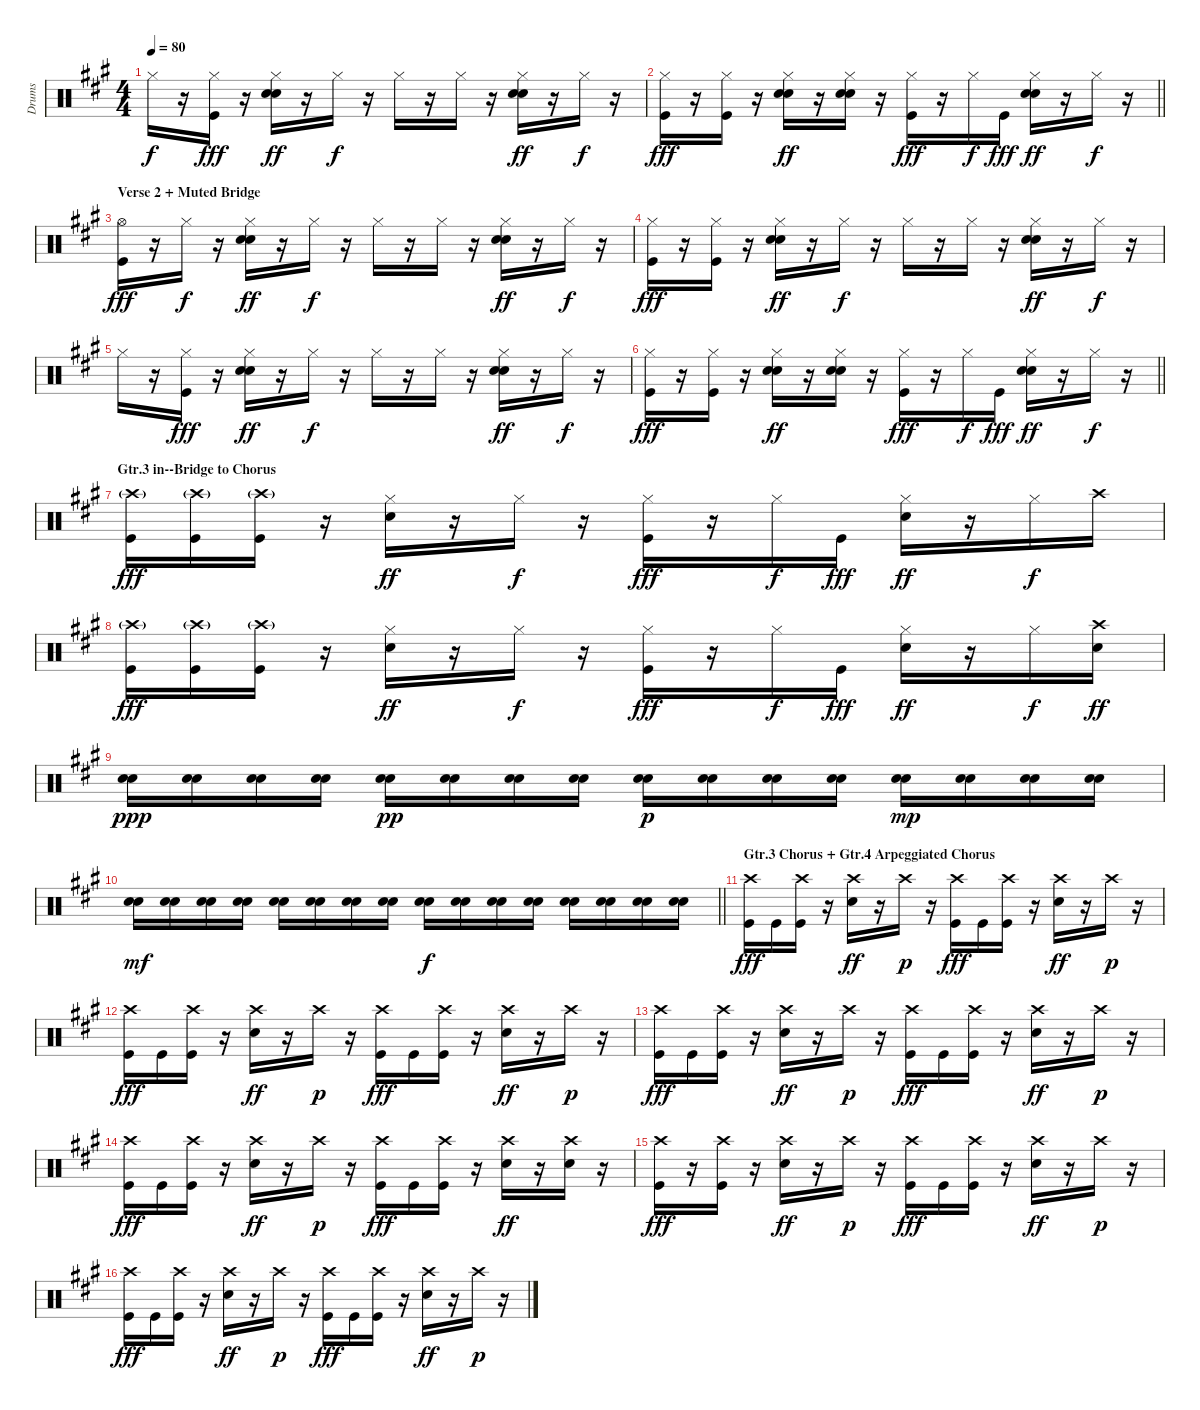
\track ("Drums" "Drums") {instrument percussion}
\staff {score}
\articulation defaults
\ts (4 4)
\tempo 80
\clef neutral
\ks f#minor "Hi-Hat (closed)".16{dy f}
r.16 ("Hi-Hat (closed)" "Kick (hit)").16{dy fff} r.16 ("Hi-Hat (closed)" "Electric Snare (hit)" "Snare (hit) 2").16{dy ff} r.16 "Hi-Hat (closed)".16{dy f} r.16 "Hi-Hat (closed)".16 r.16 "Hi-Hat (closed)".16 r.16 ("Hi-Hat (closed)" "Electric Snare (hit)" "Snare (hit) 2").16{dy ff} r.16 "Hi-Hat (closed)".16{dy f} r.16 |
\barLineRight lightlight
("Hi-Hat (closed)" "Kick (hit)").16{dy fff} r.16 ("Hi-Hat (closed)" "Kick (hit)").16 r.16 ("Hi-Hat (closed)" "Electric Snare (hit)" "Snare (hit) 2").16{dy ff} r.16 ("Hi-Hat (closed)" "Electric Snare (hit)" "Snare (hit) 2").16 r.16 ("Hi-Hat (closed)" "Kick (hit)").16{dy fff} r.16 "Hi-Hat (closed)".16{dy f} "Kick (hit)".16{dy fff} ("Hi-Hat (closed)" "Electric Snare (hit)" "Snare (hit) 2").16{dy ff} r.16 "Hi-Hat (closed)".16{dy f} r.16 |
\section ("" "Verse 2 + Muted Bridge")
\ks a
("Hi-Hat (open)" "Kick (hit)").16{dy fff} r.16 "Hi-Hat (closed)".16{dy f} r.16 ("Hi-Hat (closed)" "Electric Snare (hit)" "Snare (hit) 2").16{dy ff} r.16 "Hi-Hat (closed)".16{dy f} r.16 "Hi-Hat (closed)".16 r.16 "Hi-Hat (closed)".16 r.16 ("Hi-Hat (closed)" "Electric Snare (hit)" "Snare (hit) 2").16{dy ff} r.16 "Hi-Hat (closed)".16{dy f} r.16 |
\ks f#minor
("Hi-Hat (closed)" "Kick (hit)").16{dy fff} r.16 ("Hi-Hat (closed)" "Kick (hit)").16 r.16 ("Hi-Hat (closed)" "Electric Snare (hit)" "Snare (hit) 2").16{dy ff} r.16 "Hi-Hat (closed)".16{dy f} r.16 "Hi-Hat (closed)".16 r.16 "Hi-Hat (closed)".16 r.16 ("Hi-Hat (closed)" "Electric Snare (hit)" "Snare (hit) 2").16{dy ff} r.16 "Hi-Hat (closed)".16{dy f} r.16 |
"Hi-Hat (closed)".16 r.16 ("Hi-Hat (closed)" "Kick (hit)").16{dy fff} r.16 ("Hi-Hat (closed)" "Electric Snare (hit)" "Snare (hit) 2").16{dy ff} r.16 "Hi-Hat (closed)".16{dy f} r.16 "Hi-Hat (closed)".16 r.16 "Hi-Hat (closed)".16 r.16 ("Hi-Hat (closed)" "Electric Snare (hit)" "Snare (hit) 2").16{dy ff} r.16 "Hi-Hat (closed)".16{dy f} r.16 |
\barLineRight lightlight
("Hi-Hat (closed)" "Kick (hit)").16{dy fff} r.16 ("Hi-Hat (closed)" "Kick (hit)").16 r.16 ("Hi-Hat (closed)" "Electric Snare (hit)" "Snare (hit) 2").16{dy ff} r.16 ("Hi-Hat (closed)" "Electric Snare (hit)" "Snare (hit) 2").16 r.16 ("Hi-Hat (closed)" "Kick (hit)").16{dy fff} r.16 "Hi-Hat (closed)".16{dy f} "Kick (hit)".16{dy fff} ("Hi-Hat (closed)" "Electric Snare (hit)" "Snare (hit) 2").16{dy ff} r.16 "Hi-Hat (closed)".16{dy f} r.16 |
\section ("" "Gtr.3 in--Bridge to Chorus")
("Crash high (hit)"{g} "Kick (hit)").16{dy fff} ("Crash high (hit)"{g} "Kick (hit)").16 ("Crash high (hit)"{g} "Kick (hit)").16 r.16 ("Hi-Hat (closed)" "Electric Snare (hit)").16{dy ff} r.16 "Hi-Hat (closed)".16{dy f} r.16 ("Hi-Hat (closed)" "Kick (hit)").16{dy fff} r.16 "Hi-Hat (closed)".16{dy f} "Kick (hit)".16{dy fff} ("Hi-Hat (closed)" "Electric Snare (hit)").16{dy ff} r.16 "Hi-Hat (closed)".16{dy f} "Crash high (hit)".16 |
("Crash high (hit)"{g} "Kick (hit)").16{dy fff} ("Crash high (hit)"{g} "Kick (hit)").16 ("Crash high (hit)"{g} "Kick (hit)").16 r.16 ("Hi-Hat (closed)" "Electric Snare (hit)").16{dy ff} r.16 "Hi-Hat (closed)".16{dy f} r.16 ("Hi-Hat (closed)" "Kick (hit)").16{dy fff} r.16 "Hi-Hat (closed)".16{dy f} "Kick (hit)".16{dy fff} ("Hi-Hat (closed)" "Electric Snare (hit)").16{dy ff} r.16 "Hi-Hat (closed)".16{dy f} ("Crash high (hit)" "Electric Snare (hit)").16{dy ff} |
("Electric Snare (hit)" "Snare (hit) 2").16{dy ppp} ("Electric Snare (hit)" "Snare (hit) 2").16 ("Electric Snare (hit)" "Snare (hit) 2").16 ("Electric Snare (hit)" "Snare (hit) 2").16 ("Electric Snare (hit)" "Snare (hit) 2").16{dy pp} ("Electric Snare (hit)" "Snare (hit) 2").16 ("Electric Snare (hit)" "Snare (hit) 2").16 ("Electric Snare (hit)" "Snare (hit) 2").16 ("Electric Snare (hit)" "Snare (hit) 2").16{dy p} ("Electric Snare (hit)" "Snare (hit) 2").16 ("Electric Snare (hit)" "Snare (hit) 2").16 ("Electric Snare (hit)" "Snare (hit) 2").16 ("Electric Snare (hit)" "Snare (hit) 2").16{dy mp} ("Electric Snare (hit)" "Snare (hit) 2").16 ("Electric Snare (hit)" "Snare (hit) 2").16 ("Electric Snare (hit)" "Snare (hit) 2").16 |
\barLineRight lightlight
("Electric Snare (hit)" "Snare (hit) 2").16{dy mf} ("Electric Snare (hit)" "Snare (hit) 2").16 ("Electric Snare (hit)" "Snare (hit) 2").16 ("Electric Snare (hit)" "Snare (hit) 2").16 ("Electric Snare (hit)" "Snare (hit) 2").16 ("Electric Snare (hit)" "Snare (hit) 2").16 ("Electric Snare (hit)" "Snare (hit) 2").16 ("Electric Snare (hit)" "Snare (hit) 2").16 ("Electric Snare (hit)" "Snare (hit) 2").16{dy f} ("Electric Snare (hit)" "Snare (hit) 2").16 ("Electric Snare (hit)" "Snare (hit) 2").16 ("Electric Snare (hit)" "Snare (hit) 2").16 ("Electric Snare (hit)" "Snare (hit) 2").16 ("Electric Snare (hit)" "Snare (hit) 2").16 ("Electric Snare (hit)" "Snare (hit) 2").16 ("Electric Snare (hit)" "Snare (hit) 2").16 |
\section ("" "Gtr.3 Chorus + Gtr.4 Arpeggiated Chorus")
("Crash high (hit)" "Kick (hit)").16{dy fff} "Kick (hit)".16 ("Crash high (hit)" "Kick (hit)").16 r.16 ("Crash high (hit)" "Snare (hit) 2").16{dy ff} r.16 "Crash high (hit)".16{dy p} r.16 ("Crash high (hit)" "Kick (hit)").16{dy fff} "Kick (hit)".16 ("Crash high (hit)" "Kick (hit)").16 r.16 ("Crash high (hit)" "Snare (hit) 2").16{dy ff} r.16 "Crash high (hit)".16{dy p} r.16 |
("Crash high (hit)" "Kick (hit)").16{dy fff} "Kick (hit)".16 ("Crash high (hit)" "Kick (hit)").16 r.16 ("Crash high (hit)" "Snare (hit) 2").16{dy ff} r.16 "Crash high (hit)".16{dy p} r.16 ("Crash high (hit)" "Kick (hit)").16{dy fff} "Kick (hit)".16 ("Crash high (hit)" "Kick (hit)").16 r.16 ("Crash high (hit)" "Snare (hit) 2").16{dy ff} r.16 "Crash high (hit)".16{dy p} r.16 |
("Crash high (hit)" "Kick (hit)").16{dy fff} "Kick (hit)".16 ("Crash high (hit)" "Kick (hit)").16 r.16 ("Crash high (hit)" "Snare (hit) 2").16{dy ff} r.16 "Crash high (hit)".16{dy p} r.16 ("Crash high (hit)" "Kick (hit)").16{dy fff} "Kick (hit)".16 ("Crash high (hit)" "Kick (hit)").16 r.16 ("Crash high (hit)" "Snare (hit) 2").16{dy ff} r.16 "Crash high (hit)".16{dy p} r.16 |
("Crash high (hit)" "Kick (hit)").16{dy fff} "Kick (hit)".16 ("Crash high (hit)" "Kick (hit)").16 r.16 ("Crash high (hit)" "Snare (hit) 2").16{dy ff} r.16 "Crash high (hit)".16{dy p} r.16 ("Crash high (hit)" "Kick (hit)").16{dy fff} "Kick (hit)".16 ("Crash high (hit)" "Kick (hit)").16 r.16 ("Crash high (hit)" "Snare (hit) 2").16{dy ff} r.16 ("Crash high (hit)" "Snare (hit) 2").16 r.16 |
("Crash high (hit)" "Kick (hit)").16{dy fff} r.16 ("Crash high (hit)" "Kick (hit)").16 r.16 ("Crash high (hit)" "Snare (hit) 2").16{dy ff} r.16 "Crash high (hit)".16{dy p} r.16 ("Crash high (hit)" "Kick (hit)").16{dy fff} "Kick (hit)".16 ("Crash high (hit)" "Kick (hit)").16 r.16 ("Crash high (hit)" "Snare (hit) 2").16{dy ff} r.16 "Crash high (hit)".16{dy p} r.16 |
("Crash high (hit)" "Kick (hit)").16{dy fff} "Kick (hit)".16 ("Crash high (hit)" "Kick (hit)").16 r.16 ("Crash high (hit)" "Snare (hit) 2").16{dy ff} r.16 "Crash high (hit)".16{dy p} r.16 ("Crash high (hit)" "Kick (hit)").16{dy fff} "Kick (hit)".16 ("Crash high (hit)" "Kick (hit)").16 r.16 ("Crash high (hit)" "Snare (hit) 2").16{dy ff} r.16 "Crash high (hit)".16{dy p} r.16
